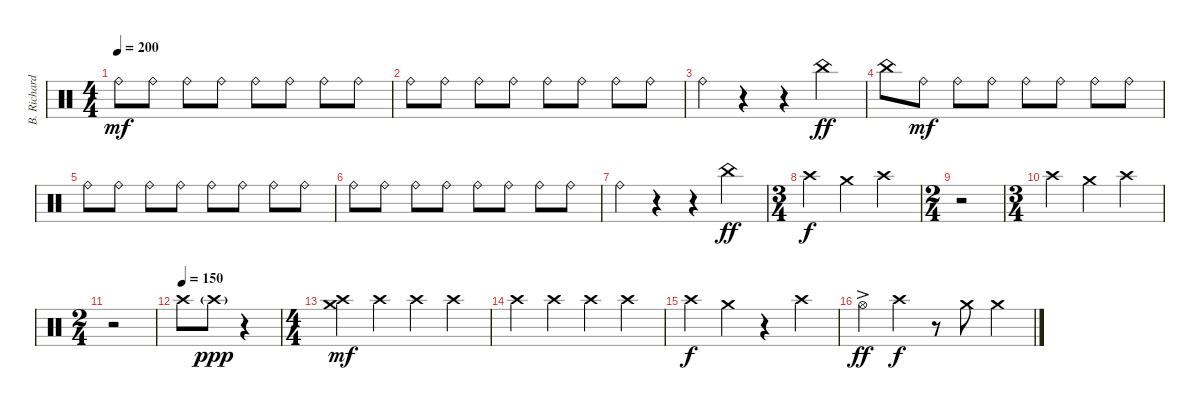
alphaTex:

\track ("B. Richardson Drums" "B. Richard") {instrument percussion}
\staff {score}
\articulation defaults
\ts (4 4)
\tempo 200
\clef neutral
\ks c "Ride (bell)".8{dy mf} "Ride (bell)".8 "Ride (bell)".8 "Ride (bell)".8 "Ride (bell)".8 "Ride (bell)".8 "Ride (bell)".8 "Ride (bell)".8
|
"Ride (bell)".8 "Ride (bell)".8 "Ride (bell)".8 "Ride (bell)".8 "Ride (bell)".8 "Ride (bell)".8 "Ride (bell)".8 "Ride (bell)".8 |
"Ride (bell)".4 r.4 r.4 "China (hit)".4{dy ff} |
"China (hit)".8 "Ride (bell)".8{dy mf} "Ride (bell)".8 "Ride (bell)".8 "Ride (bell)".8 "Ride (bell)".8 "Ride (bell)".8 "Ride (bell)".8 |
"Ride (bell)".8 "Ride (bell)".8 "Ride (bell)".8 "Ride (bell)".8 "Ride (bell)".8 "Ride (bell)".8 "Ride (bell)".8 "Ride (bell)".8 |
"Ride (bell)".8 "Ride (bell)".8 "Ride (bell)".8 "Ride (bell)".8 "Ride (bell)".8 "Ride (bell)".8 "Ride (bell)".8 "Ride (bell)".8 |
"Ride (bell)".4 r.4 r.4 "China (hit)".4{dy ff} |
\ts (3 4)
"Crash high (hit)".4{dy f} "Crash medium (hit)".4 "Crash high (hit)".4 |
\ts (2 4)
r.2 |
\ts (3 4)
"Crash high (hit)".4 "Crash medium (hit)".4 "Crash high (hit)".4 |
\ts (2 4)
r.2 |
\tempo (150)
"Crash high (hit)".8 "Crash high (hit)"{g}.8{dy ppp} r.4 |
\ts (4 4)
("Crash high (hit)" "Crash medium (hit)").4{dy mf} "Crash high (hit)".4 "Crash high (hit)".4 "Crash high (hit)".4 |
"Crash high (hit)".4 "Crash high (hit)".4 "Crash high (hit)".4 "Crash high (hit)".4 |
"Crash high (hit)".4{dy f} "Crash medium (hit)".4 r.4 "Crash high (hit)".4 |
"Hi-Hat (open)"{ac}.4{dy ff} "Crash high (hit)".4{dy f} r.8 "Crash medium (hit)".8 "Crash medium (hit)".4
